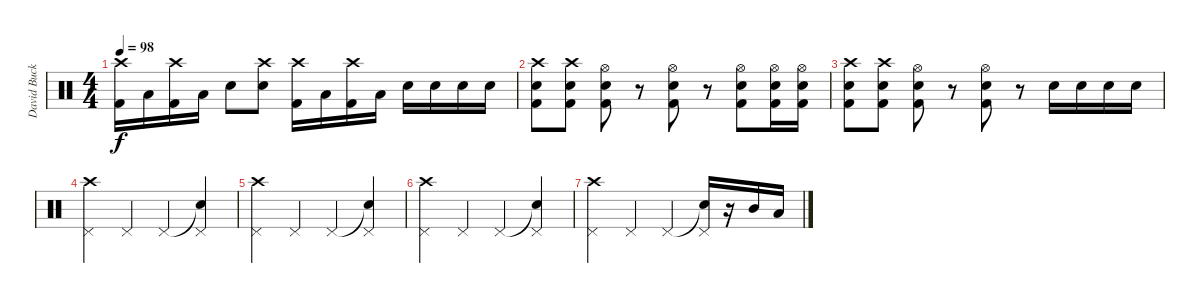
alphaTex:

\track ("David Buckner" "David Buck") {instrument percussion}
\staff {score}
\articulation defaults
\ts (4 4)
\tempo 98
\clef neutral
\ks c
("Crash high (hit)" "Kick (hit) 2").16{dy f} "Low Tom (hit)".16 ("Crash high (hit)" "Kick (hit) 2").16 "Low Tom (hit)".16 "Snare (hit) 2".8 ("Crash high (hit)" "Snare (hit) 2").8 ("Crash high (hit)" "Kick (hit) 2").16 "Low Tom (hit)".16 ("Crash high (hit)" "Kick (hit) 2").16 "Low Tom (hit)".16 "Snare (hit) 2".16 "Snare (hit) 2".16 "Snare (hit) 2".16 "Snare (hit) 2".16 |
("Crash high (hit)" "Snare (hit) 2" "Kick (hit) 2").8 ("Crash high (hit)" "Snare (hit) 2" "Kick (hit) 2").8 ("Hi-Hat (open)" "Snare (hit) 2" "Kick (hit) 2").8 r.8 ("Hi-Hat (open)" "Snare (hit) 2" "Kick (hit) 2").8 r.8 ("Hi-Hat (open)" "Snare (hit) 2" "Kick (hit) 2").8 ("Hi-Hat (open)" "Snare (hit) 2" "Kick (hit) 2").16 ("Hi-Hat (open)" "Snare (hit) 2" "Kick (hit) 2").16 |
("Crash high (hit)" "Snare (hit) 2" "Kick (hit) 2").8 ("Crash high (hit)" "Snare (hit) 2" "Kick (hit) 2").8 ("Hi-Hat (open)" "Snare (hit) 2" "Kick (hit) 2").8 r.8 ("Hi-Hat (open)" "Snare (hit) 2" "Kick (hit) 2").8 r.8 "Snare (hit) 2".16 "Snare (hit) 2".16 "Snare (hit) 2".16 "Snare (hit) 2".16 |
("Crash high (hit)" "Pedal Hi-Hat (hit)").4 "Pedal Hi-Hat (hit)".4 "Pedal Hi-Hat (hit)".4 ("Snare (hit)"{t} "Pedal Hi-Hat (hit)").4 |
("Crash high (hit)" "Pedal Hi-Hat (hit)").4 "Pedal Hi-Hat (hit)".4 "Pedal Hi-Hat (hit)".4 ("Snare (hit)"{t} "Pedal Hi-Hat (hit)").4 |
("Crash high (hit)" "Pedal Hi-Hat (hit)").4 "Pedal Hi-Hat (hit)".4 "Pedal Hi-Hat (hit)".4 ("Snare (hit)"{t} "Pedal Hi-Hat (hit)").4 |
("Crash high (hit)" "Pedal Hi-Hat (hit)").4 "Pedal Hi-Hat (hit)".4 "Pedal Hi-Hat (hit)".4 ("Snare (hit)"{t} "Pedal Hi-Hat (hit)").16 r.16 "Mid Tom (hit)".16 "Low Tom (hit)".16
